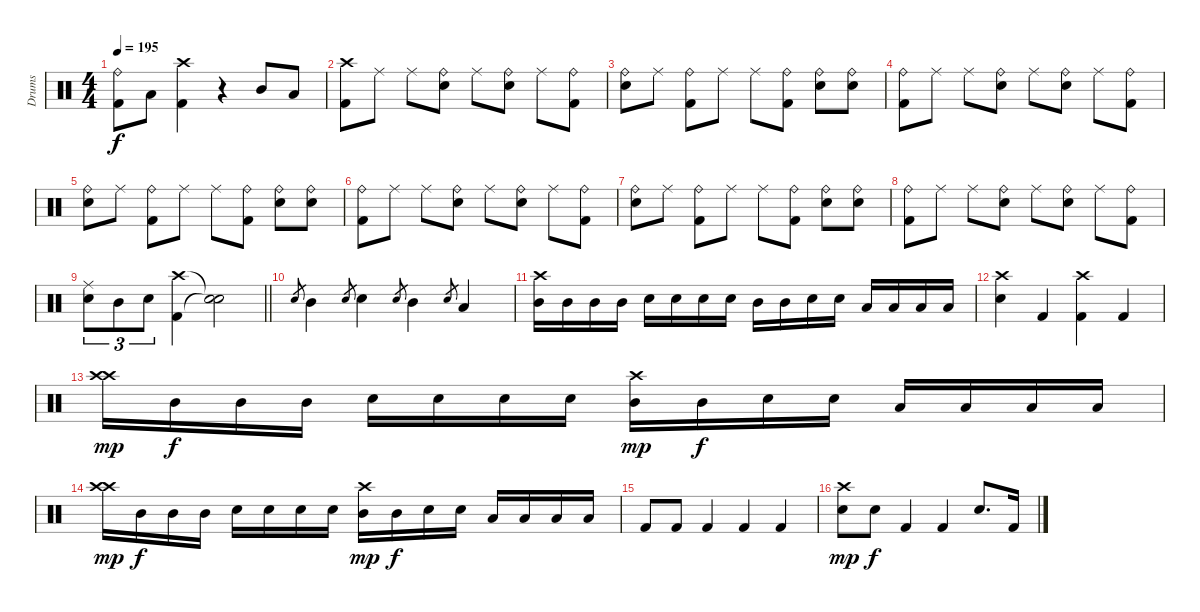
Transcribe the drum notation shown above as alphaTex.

\track ("Drums" "Drums") {instrument percussion}
\staff {score}
\articulation defaults
\ts (4 4)
\tempo 195
\clef neutral
\ks c
("Ride (bell)" "Kick (hit) 2").8{dy f} "Low Floor Tom (hit)".8 ("Crash high (hit)" "Kick (hit) 2").4 r.4 "Mid Tom (hit)".8 "Low Floor Tom (hit)".8 |
("Crash high (hit)" "Kick (hit) 2").8 "Ride (middle)".8 "Ride (middle)".8 ("Ride (bell)" "Snare (hit) 2").8 "Ride (middle)".8 ("Ride (bell)" "Snare (hit) 2").8 "Ride (middle)".8 ("Ride (bell)" "Kick (hit) 2").8 |
("Ride (bell)" "Snare (hit) 2").8 "Ride (middle)".8 ("Ride (bell)" "Kick (hit) 2").8 "Ride (middle)".8 "Ride (middle)".8 ("Ride (bell)" "Kick (hit) 2").8 ("Ride (bell)" "Snare (hit) 2").8 ("Ride (bell)" "Snare (hit) 2").8 |
("Ride (bell)" "Kick (hit) 2").8 "Ride (middle)".8 "Ride (middle)".8 ("Ride (bell)" "Snare (hit) 2").8 "Ride (middle)".8 ("Ride (bell)" "Snare (hit) 2").8 "Ride (middle)".8 ("Ride (bell)" "Kick (hit) 2").8 |
("Ride (bell)" "Snare (hit) 2").8 "Ride (middle)".8 ("Ride (bell)" "Kick (hit) 2").8 "Ride (middle)".8 "Ride (middle)".8 ("Ride (bell)" "Kick (hit) 2").8 ("Ride (bell)" "Snare (hit) 2").8 ("Ride (bell)" "Snare (hit) 2").8 |
("Ride (bell)" "Kick (hit) 2").8 "Ride (middle)".8 "Ride (middle)".8 ("Ride (bell)" "Snare (hit) 2").8 "Ride (middle)".8 ("Ride (bell)" "Snare (hit) 2").8 "Ride (middle)".8 ("Ride (bell)" "Kick (hit) 2").8 |
("Ride (bell)" "Snare (hit) 2").8 "Ride (middle)".8 ("Ride (bell)" "Kick (hit) 2").8 "Ride (middle)".8 "Ride (middle)".8 ("Ride (bell)" "Kick (hit) 2").8 ("Ride (bell)" "Snare (hit) 2").8 ("Ride (bell)" "Snare (hit) 2").8 |
("Ride (bell)" "Kick (hit) 2").8 "Ride (middle)".8 "Ride (middle)".8 ("Ride (bell)" "Snare (hit) 2").8 "Ride (middle)".8 ("Ride (bell)" "Snare (hit) 2").8 "Ride (middle)".8 ("Ride (bell)" "Kick (hit) 2").8 |
\barLineRight lightlight
("Ride (middle)" "Snare (hit) 2").8{tu (3 2)} "Mid Tom (hit)".8{tu (3 2)} "Snare (hit) 2".8{tu (3 2)} ("Crash high (hit)" "Kick (hit) 2").4 ("Snare (hit)"{t} "Snare (hit)"{t}).2 |
"Snare (hit) 2".8{gr} "Mid Tom (hit)".4 "Snare (hit) 2".8{gr} "Snare (hit) 2".4 "Snare (hit) 2".8{gr} "Mid Tom (hit)".4 "Snare (hit) 2".8{gr} "Low Floor Tom (hit)".4 |
("Mid Tom (hit)" "Crash high (hit)").16 "Mid Tom (hit)".16 "Mid Tom (hit)".16 "Mid Tom (hit)".16 "Snare (hit) 2".16 "Snare (hit) 2".16 "Snare (hit) 2".16 "Snare (hit) 2".16 "Mid Tom (hit)".16 "Mid Tom (hit)".16 "Snare (hit) 2".16 "Snare (hit) 2".16 "Low Floor Tom (hit)".16 "Low Floor Tom (hit)".16 "Low Floor Tom (hit)".16 "Low Floor Tom (hit)".16 |
("Crash high (hit)" "Snare (hit) 2").4 "Kick (hit) 2".4 ("Crash high (hit)" "Kick (hit) 2").4 "Kick (hit) 2".4 |
("Crash high (hit)" "Crash high (hit)").16{dy mp} "Mid Tom (hit)".16{dy f} "Mid Tom (hit)".16 "Mid Tom (hit)".16 "Snare (hit) 2".16 "Snare (hit) 2".16 "Snare (hit) 2".16 "Snare (hit) 2".16 ("Crash high (hit)" "Mid Tom (hit)").16{dy mp} "Mid Tom (hit)".16{dy f} "Snare (hit) 2".16 "Snare (hit) 2".16 "Low Floor Tom (hit)".16 "Low Floor Tom (hit)".16 "Low Floor Tom (hit)".16 "Low Floor Tom (hit)".16 |
("Crash high (hit)" "Crash high (hit)").16{dy mp} "Mid Tom (hit)".16{dy f} "Mid Tom (hit)".16 "Mid Tom (hit)".16 "Snare (hit) 2".16 "Snare (hit) 2".16 "Snare (hit) 2".16 "Snare (hit) 2".16 ("Crash high (hit)" "Mid Tom (hit)").16{dy mp} "Mid Tom (hit)".16{dy f} "Snare (hit) 2".16 "Snare (hit) 2".16 "Low Floor Tom (hit)".16 "Low Floor Tom (hit)".16 "Low Floor Tom (hit)".16 "Low Floor Tom (hit)".16 |
"Kick (hit) 2".8 "Kick (hit) 2".8 "Kick (hit) 2".4 "Kick (hit) 2".4 "Kick (hit) 2".4 |
("Crash high (hit)" "Snare (hit) 2").8{dy mp} "Snare (hit) 2".8{dy f} "Kick (hit) 2".4 "Kick (hit) 2".4 "Snare (hit) 2".8{d} "Kick (hit) 2".16
